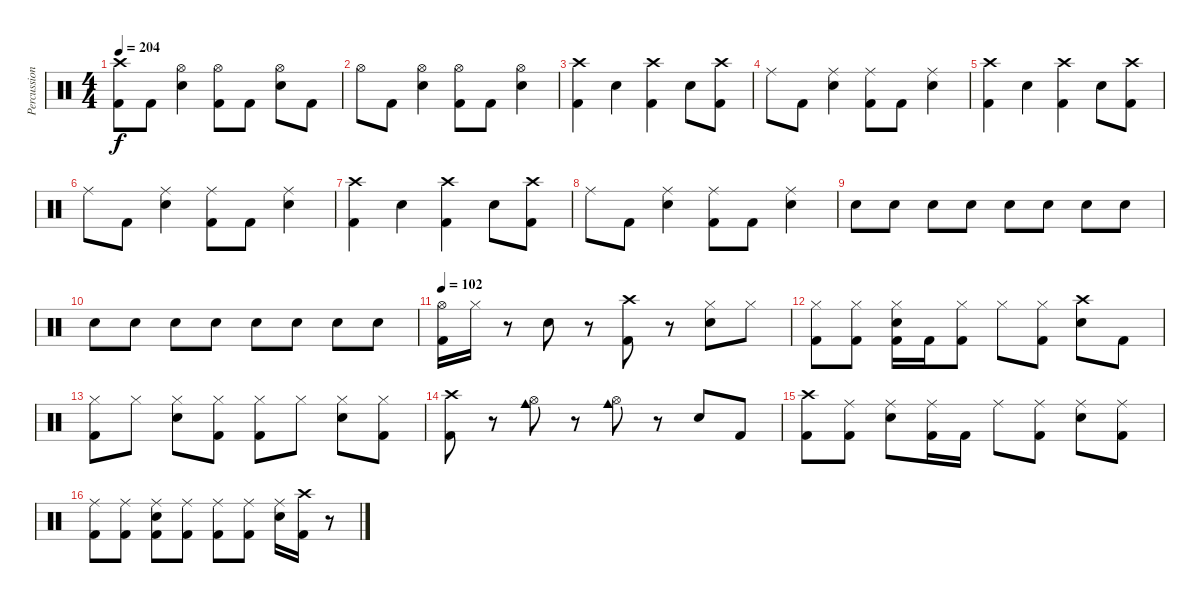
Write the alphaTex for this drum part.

\track ("Percussion" "Percussion") {instrument percussion}
\staff {score}
\articulation defaults
\ts (4 4)
\tempo 204
\clef neutral
\ks c
("Kick (hit) 2" "Crash high (hit)").8{dy f} "Kick (hit) 2".8 ("Hi-Hat (open)" "Snare (hit) 2").4 ("Hi-Hat (open)" "Kick (hit) 2").8 "Kick (hit) 2".8 ("Hi-Hat (open)" "Snare (hit) 2").8 "Kick (hit) 2".8 |
"Hi-Hat (open)".8 "Kick (hit) 2".8 ("Hi-Hat (open)" "Snare (hit) 2").4 ("Hi-Hat (open)" "Kick (hit) 2").8 "Kick (hit) 2".8 ("Hi-Hat (open)" "Snare (hit) 2").4 |
("Kick (hit) 2" "Crash high (hit)").4 "Snare (hit) 2".4 ("Kick (hit) 2" "Crash high (hit)").4 "Snare (hit) 2".8 ("Kick (hit) 2" "Crash high (hit)").8 |
"Ride (middle)".8 "Kick (hit) 2".8 ("Snare (hit) 2" "Ride (middle)").4 ("Kick (hit) 2" "Ride (middle)").8 "Kick (hit) 2".8 ("Snare (hit) 2" "Ride (middle)").4 |
("Kick (hit) 2" "Crash high (hit)").4 "Snare (hit) 2".4 ("Kick (hit) 2" "Crash high (hit)").4 "Snare (hit) 2".8 ("Kick (hit) 2" "Crash high (hit)").8 |
"Ride (middle)".8 "Kick (hit) 2".8 ("Snare (hit) 2" "Ride (middle)").4 ("Kick (hit) 2" "Ride (middle)").8 "Kick (hit) 2".8 ("Snare (hit) 2" "Ride (middle)").4 |
("Kick (hit) 2" "Crash high (hit)").4 "Snare (hit) 2".4 ("Kick (hit) 2" "Crash high (hit)").4 "Snare (hit) 2".8 ("Kick (hit) 2" "Crash high (hit)").8 |
"Ride (middle)".8 "Kick (hit) 2".8 ("Snare (hit) 2" "Ride (middle)").4 ("Kick (hit) 2" "Ride (middle)").8 "Kick (hit) 2".8 ("Snare (hit) 2" "Ride (middle)").4 |
"Snare (hit) 2".8 "Snare (hit) 2".8 "Snare (hit) 2".8 "Snare (hit) 2".8 "Snare (hit) 2".8 "Snare (hit) 2".8 "Snare (hit) 2".8 "Snare (hit) 2".8 |
"Snare (hit) 2".8 "Snare (hit) 2".8 "Snare (hit) 2".8 "Snare (hit) 2".8 "Snare (hit) 2".8 "Snare (hit) 2".8 "Snare (hit) 2".8 "Snare (hit) 2".8 |
\tempo 102
("Hi-Hat (open)" "Kick (hit) 2").16 "Hi-Hat (closed)".16 r.8 "Electric Snare (hit)".8 r.8 ("Kick (hit) 2" "Crash high (hit)").8 r.8 ("Hi-Hat (closed)" "Snare (hit) 2").8 "Hi-Hat (closed)".8 |
("Hi-Hat (closed)" "Kick (hit) 2").8 ("Hi-Hat (closed)" "Kick (hit) 2").8 ("Hi-Hat (closed)" "Snare (hit) 2" "Kick (hit) 2").16 "Kick (hit) 2".16 ("Hi-Hat (closed)" "Kick (hit) 2").8 "Hi-Hat (closed)".8 ("Hi-Hat (closed)" "Kick (hit) 2").8 ("Snare (hit) 2" "Crash high (hit)").8 "Kick (hit) 2".8 |
("Hi-Hat (closed)" "Kick (hit) 2").8 "Hi-Hat (closed)".8 ("Hi-Hat (closed)" "Snare (hit) 2").8 ("Hi-Hat (closed)" "Kick (hit) 2").8 ("Hi-Hat (closed)" "Kick (hit) 2").8 "Hi-Hat (closed)".8 ("Hi-Hat (closed)" "Snare (hit) 2").8 ("Hi-Hat (closed)" "Kick (hit) 2").8 |
("Kick (hit) 2" "Crash high (hit)").8 r.8 ("Hi-Hat (open)" "Cowbell medium (hit)").8 r.8 ("Hi-Hat (open)" "Cowbell medium (hit)").8 r.8 "Electric Snare (hit)".8 "Kick (hit) 2".8 |
("Kick (hit) 2" "Crash high (hit)").8 ("Kick (hit) 2" "Ride (middle)").8 ("Snare (hit) 2" "Ride (middle)").8 ("Kick (hit) 2" "Ride (middle)").16 "Kick (hit) 2".16 "Ride (middle)".8 ("Kick (hit) 2" "Ride (middle)").8 ("Snare (hit) 2" "Ride (middle)").8 ("Kick (hit) 2" "Ride (middle)").8 |
("Kick (hit) 2" "Ride (middle)").8 ("Kick (hit) 2" "Ride (middle)").8 ("Snare (hit) 2" "Kick (hit) 2" "Ride (middle)").8 ("Kick (hit) 2" "Ride (middle)").8 ("Kick (hit) 2" "Ride (middle)").8 ("Kick (hit) 2" "Ride (middle)").8 ("Snare (hit) 2" "Ride (middle)").16 ("Kick (hit) 2" "Crash high (hit)").16 r.8
